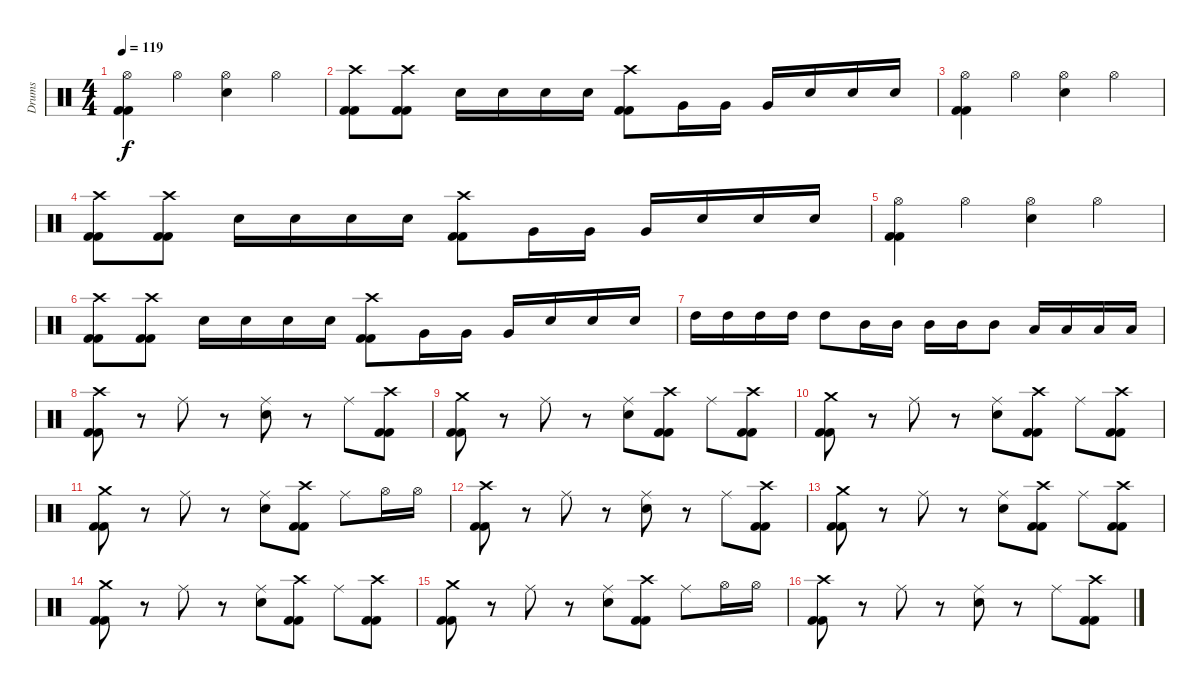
\track ("Drums" "Drums") {instrument percussion}
\staff {score}
\articulation defaults
\ts (4 4)
\tempo 119
\clef neutral
\ks c
("Hi-Hat (open)" "Kick (hit) 2" "Kick (hit) 2").4{dy f} "Hi-Hat (open)".4 ("Hi-Hat (open)" "Electric Snare (hit)").4 "Hi-Hat (open)".4 |
("Crash high (hit)" "Kick (hit) 2" "Kick (hit) 2").8 ("Crash high (hit)" "Kick (hit) 2" "Kick (hit) 2").8 "Electric Snare (hit)".16 "Electric Snare (hit)".16 "Electric Snare (hit)".16 "Electric Snare (hit)".16 ("Crash high (hit)" "Kick (hit) 2" "Kick (hit) 2").8 "Very Low Tom (hit)".16 "Very Low Tom (hit)".16 "Very Low Tom (hit)".16 "Electric Snare (hit)".16 "Electric Snare (hit)".16 "Electric Snare (hit)".16 |
("Hi-Hat (open)" "Kick (hit) 2" "Kick (hit) 2").4 "Hi-Hat (open)".4 ("Hi-Hat (open)" "Electric Snare (hit)").4 "Hi-Hat (open)".4 |
("Crash high (hit)" "Kick (hit) 2" "Kick (hit) 2").8 ("Crash high (hit)" "Kick (hit) 2" "Kick (hit) 2").8 "Electric Snare (hit)".16 "Electric Snare (hit)".16 "Electric Snare (hit)".16 "Electric Snare (hit)".16 ("Crash high (hit)" "Kick (hit) 2" "Kick (hit) 2").8 "Very Low Tom (hit)".16 "Very Low Tom (hit)".16 "Very Low Tom (hit)".16 "Electric Snare (hit)".16 "Electric Snare (hit)".16 "Electric Snare (hit)".16 |
("Hi-Hat (open)" "Kick (hit) 2" "Kick (hit) 2").4 "Hi-Hat (open)".4 ("Hi-Hat (open)" "Electric Snare (hit)").4 "Hi-Hat (open)".4 |
("Crash high (hit)" "Kick (hit) 2" "Kick (hit) 2").8 ("Crash high (hit)" "Kick (hit) 2" "Kick (hit) 2").8 "Electric Snare (hit)".16 "Electric Snare (hit)".16 "Electric Snare (hit)".16 "Electric Snare (hit)".16 ("Crash high (hit)" "Kick (hit) 2" "Kick (hit) 2").8 "Very Low Tom (hit)".16 "Very Low Tom (hit)".16 "Very Low Tom (hit)".16 "Electric Snare (hit)".16 "Electric Snare (hit)".16 "Electric Snare (hit)".16 |
"High Tom (hit)".16 "High Tom (hit)".16 "High Tom (hit)".16 "High Tom (hit)".16 "High Tom (hit)".8 "Mid Tom (hit)".16 "Mid Tom (hit)".16 "Mid Tom (hit)".16 "Mid Tom (hit)".16 "Mid Tom (hit)".8 "Low Tom (hit)".16 "Low Tom (hit)".16 "Low Tom (hit)".16 "Low Tom (hit)".16 |
("Crash high (hit)" "Kick (hit) 2" "Kick (hit) 2").8 r.8 "Ride (middle)".8 r.8 ("Ride (middle)" "Electric Snare (hit)").8 r.8 "Ride (middle)".8 ("Crash high (hit)" "Kick (hit) 2" "Kick (hit) 2").8 |
("Crash medium (hit)" "Kick (hit) 2" "Kick (hit) 2").8 r.8 "Ride (middle)".8 r.8 ("Ride (middle)" "Electric Snare (hit)").8 ("Crash high (hit)" "Kick (hit) 2" "Kick (hit) 2").8 "Ride (middle)".8 ("Crash high (hit)" "Kick (hit) 2" "Kick (hit) 2").8 |
("Crash medium (hit)" "Kick (hit) 2" "Kick (hit) 2").8 r.8 "Ride (middle)".8 r.8 ("Ride (middle)" "Electric Snare (hit)").8 ("Crash high (hit)" "Kick (hit) 2" "Kick (hit) 2").8 "Ride (middle)".8 ("Crash high (hit)" "Kick (hit) 2" "Kick (hit) 2").8 |
("Crash medium (hit)" "Kick (hit) 2" "Kick (hit) 2").8 r.8 "Ride (middle)".8 r.8 ("Ride (middle)" "Electric Snare (hit)").8 ("Crash high (hit)" "Kick (hit) 2" "Kick (hit) 2").8 "Ride (middle)".8 "Hi-Hat (open)".16 "Hi-Hat (open)".16 |
("Crash high (hit)" "Kick (hit) 2" "Kick (hit) 2").8 r.8 "Ride (middle)".8 r.8 ("Ride (middle)" "Electric Snare (hit)").8 r.8 "Ride (middle)".8 ("Crash high (hit)" "Kick (hit) 2" "Kick (hit) 2").8 |
("Crash medium (hit)" "Kick (hit) 2" "Kick (hit) 2").8 r.8 "Ride (middle)".8 r.8 ("Ride (middle)" "Electric Snare (hit)").8 ("Crash high (hit)" "Kick (hit) 2" "Kick (hit) 2").8 "Ride (middle)".8 ("Crash high (hit)" "Kick (hit) 2" "Kick (hit) 2").8 |
("Crash medium (hit)" "Kick (hit) 2" "Kick (hit) 2").8 r.8 "Ride (middle)".8 r.8 ("Ride (middle)" "Electric Snare (hit)").8 ("Crash high (hit)" "Kick (hit) 2" "Kick (hit) 2").8 "Ride (middle)".8 ("Crash high (hit)" "Kick (hit) 2" "Kick (hit) 2").8 |
("Crash medium (hit)" "Kick (hit) 2" "Kick (hit) 2").8 r.8 "Ride (middle)".8 r.8 ("Ride (middle)" "Electric Snare (hit)").8 ("Crash high (hit)" "Kick (hit) 2" "Kick (hit) 2").8 "Ride (middle)".8 "Hi-Hat (open)".16 "Hi-Hat (open)".16 |
("Crash high (hit)" "Kick (hit) 2" "Kick (hit) 2").8 r.8 "Ride (middle)".8 r.8 ("Ride (middle)" "Electric Snare (hit)").8 r.8 "Ride (middle)".8 ("Crash high (hit)" "Kick (hit) 2" "Kick (hit) 2").8
